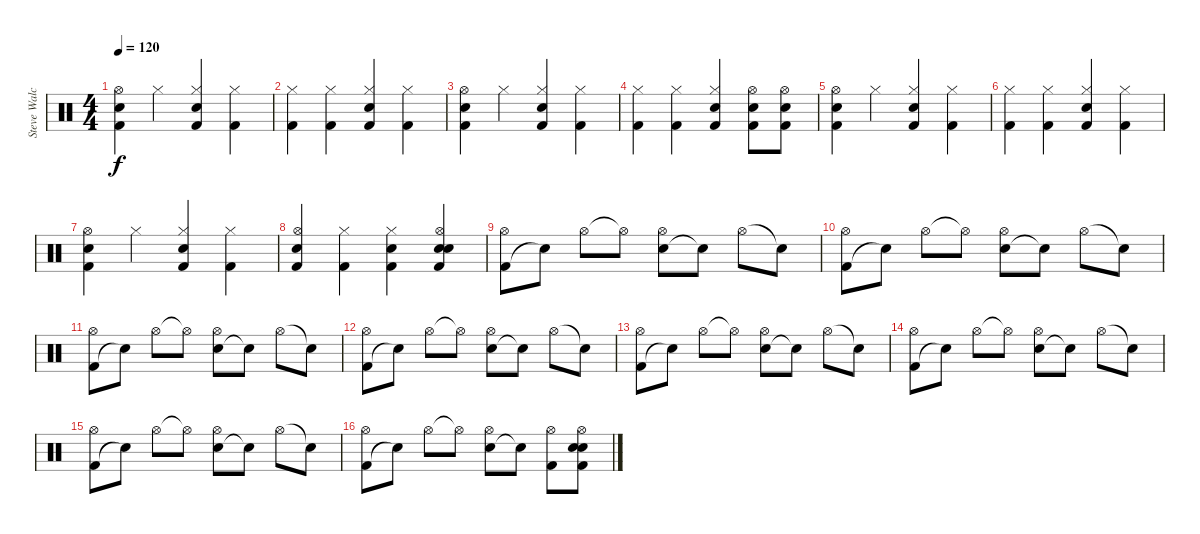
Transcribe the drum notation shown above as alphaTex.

\track ("Steve Walchoz" "Steve Walc") {instrument percussion}
\staff {score}
\articulation defaults
\ts (4 4)
\tempo 120
\clef neutral
\ks c
("Kick (hit) 2" "Snare (hit) 2" "Hi-Hat (open)").4{dy f} "Hi-Hat (closed)".4 ("Kick (hit) 2" "Electric Snare (hit)" "Hi-Hat (closed)").4 ("Kick (hit) 2" "Hi-Hat (closed)").4 |
("Kick (hit) 2" "Hi-Hat (closed)").4 ("Kick (hit) 2" "Hi-Hat (closed)").4 ("Kick (hit) 2" "Electric Snare (hit)" "Hi-Hat (closed)").4 ("Kick (hit) 2" "Hi-Hat (closed)").4 |
("Kick (hit) 2" "Snare (hit) 2" "Hi-Hat (open)").4 "Hi-Hat (closed)".4 ("Kick (hit) 2" "Electric Snare (hit)" "Hi-Hat (closed)").4 ("Kick (hit) 2" "Hi-Hat (closed)").4 |
("Kick (hit) 2" "Hi-Hat (closed)").4 ("Kick (hit) 2" "Hi-Hat (closed)").4 ("Kick (hit) 2" "Electric Snare (hit)" "Hi-Hat (closed)").4 ("Kick (hit) 2" "Snare (hit) 2" "Hi-Hat (open)").8 ("Kick (hit) 2" "Snare (hit) 2" "Hi-Hat (open)").8 |
("Kick (hit) 2" "Snare (hit) 2" "Hi-Hat (open)").4 "Hi-Hat (closed)".4 ("Kick (hit) 2" "Electric Snare (hit)" "Hi-Hat (closed)").4 ("Kick (hit) 2" "Hi-Hat (closed)").4 |
("Kick (hit) 2" "Hi-Hat (closed)").4 ("Kick (hit) 2" "Hi-Hat (closed)").4 ("Kick (hit) 2" "Electric Snare (hit)" "Hi-Hat (closed)").4 ("Kick (hit) 2" "Hi-Hat (closed)").4 |
("Kick (hit) 2" "Snare (hit) 2" "Hi-Hat (open)").4 "Hi-Hat (closed)".4 ("Kick (hit) 2" "Electric Snare (hit)" "Hi-Hat (closed)").4 ("Kick (hit) 2" "Hi-Hat (closed)").4 |
("Hi-Hat (open)" "Electric Snare (hit)" "Kick (hit) 2").4 ("Kick (hit) 2" "Hi-Hat (closed)").4 ("Snare (hit) 2" "Kick (hit) 2" "Hi-Hat (closed)").4 ("Electric Snare (hit)" "Electric Snare (hit)" "Kick (hit) 2" "Hi-Hat (open)").4 |
("Kick (hit) 2" "Hi-Hat (open)").8 "Snare (hit)"{t}.8 "Hi-Hat (open)".8 "Hi-Hat (open)"{t}.8 ("Electric Snare (hit)" "Hi-Hat (open)").8 "Snare (hit)"{t}.8 "Hi-Hat (open)".8 "Snare (hit)"{t}.8 |
("Kick (hit) 2" "Hi-Hat (open)").8 "Snare (hit)"{t}.8 "Hi-Hat (open)".8 "Hi-Hat (open)"{t}.8 ("Electric Snare (hit)" "Hi-Hat (open)").8 "Snare (hit)"{t}.8 "Hi-Hat (open)".8 "Snare (hit)"{t}.8 |
("Kick (hit) 2" "Hi-Hat (open)").8 "Snare (hit)"{t}.8 "Hi-Hat (open)".8 "Hi-Hat (open)"{t}.8 ("Electric Snare (hit)" "Hi-Hat (open)").8 "Snare (hit)"{t}.8 "Hi-Hat (open)".8 "Snare (hit)"{t}.8 |
("Kick (hit) 2" "Hi-Hat (open)").8 "Snare (hit)"{t}.8 "Hi-Hat (open)".8 "Hi-Hat (open)"{t}.8 ("Electric Snare (hit)" "Hi-Hat (open)").8 "Snare (hit)"{t}.8 "Hi-Hat (open)".8 "Snare (hit)"{t}.8 |
("Kick (hit) 2" "Hi-Hat (open)").8 "Snare (hit)"{t}.8 "Hi-Hat (open)".8 "Hi-Hat (open)"{t}.8 ("Electric Snare (hit)" "Hi-Hat (open)").8 "Snare (hit)"{t}.8 "Hi-Hat (open)".8 "Snare (hit)"{t}.8 |
("Kick (hit) 2" "Hi-Hat (open)").8 "Snare (hit)"{t}.8 "Hi-Hat (open)".8 "Hi-Hat (open)"{t}.8 ("Electric Snare (hit)" "Hi-Hat (open)").8 "Snare (hit)"{t}.8 "Hi-Hat (open)".8 "Snare (hit)"{t}.8 |
("Kick (hit) 2" "Hi-Hat (open)").8 "Snare (hit)"{t}.8 "Hi-Hat (open)".8 "Hi-Hat (open)"{t}.8 ("Electric Snare (hit)" "Hi-Hat (open)").8 "Snare (hit)"{t}.8 "Hi-Hat (open)".8 "Snare (hit)"{t}.8 |
("Kick (hit) 2" "Hi-Hat (open)").8 "Snare (hit)"{t}.8 "Hi-Hat (open)".8 "Hi-Hat (open)"{t}.8 ("Electric Snare (hit)" "Hi-Hat (open)").8 "Snare (hit)"{t}.8 ("Kick (hit) 2" "Hi-Hat (open)").8 ("Kick (hit) 2" "Electric Snare (hit)" "Snare (hit)" "Hi-Hat (open)").8
